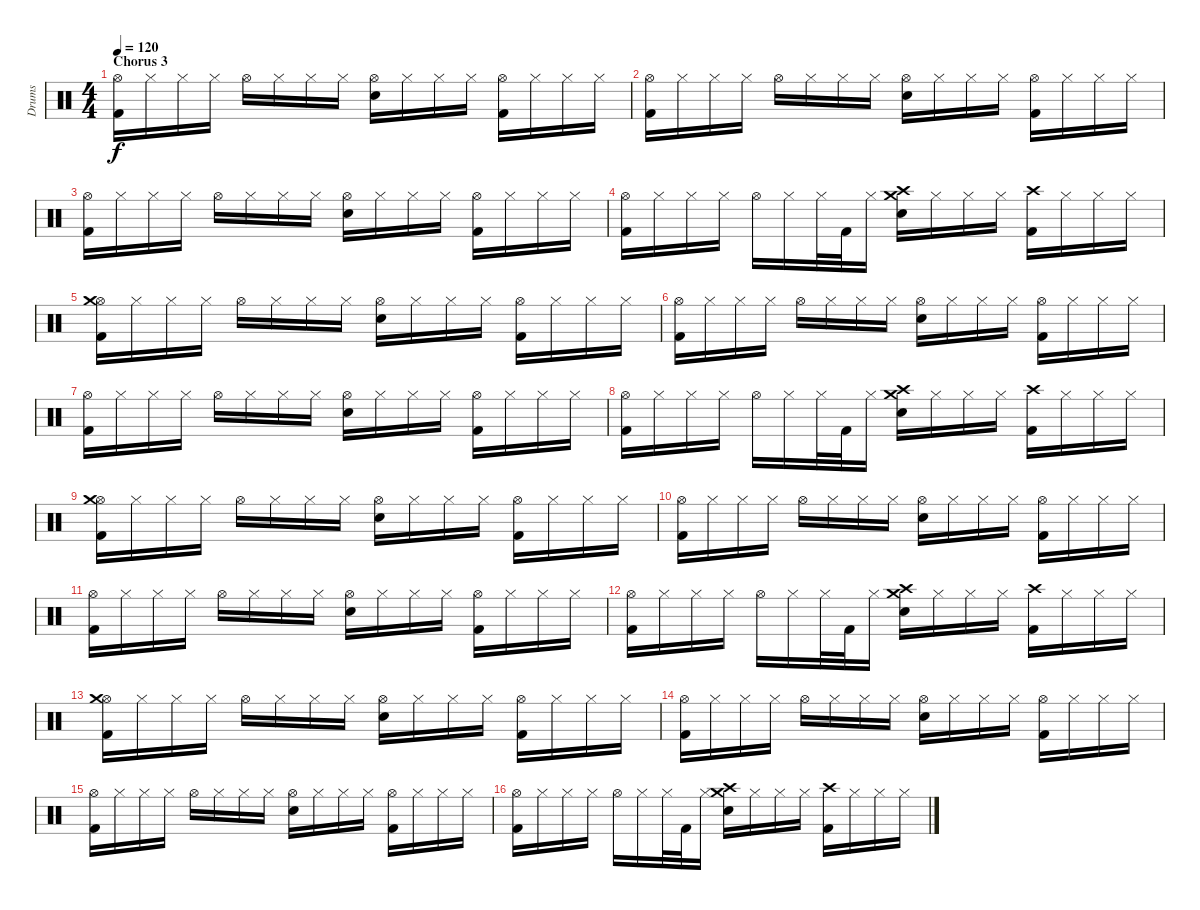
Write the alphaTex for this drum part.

\track ("Drums" "Drums") {instrument percussion}
\staff {score}
\articulation defaults
\ts (4 4)
\section ("" "Chorus 3")
\tempo 120
\clef neutral
\ks c
("Hi-Hat (open)" "Kick (hit) 2").16{dy f} "Hi-Hat (closed)".16 "Hi-Hat (closed)".16 "Hi-Hat (closed)".16 "Hi-Hat (open)".16 "Hi-Hat (closed)".16 "Hi-Hat (closed)".16 "Hi-Hat (closed)".16 ("Hi-Hat (open)" "Snare (hit) 2").16 "Hi-Hat (closed)".16 "Hi-Hat (closed)".16 "Hi-Hat (closed)".16 ("Hi-Hat (open)" "Kick (hit) 2").16 "Hi-Hat (closed)".16 "Hi-Hat (closed)".16 "Hi-Hat (closed)".16 |
("Hi-Hat (open)" "Kick (hit) 2").16 "Hi-Hat (closed)".16 "Hi-Hat (closed)".16 "Hi-Hat (closed)".16 "Hi-Hat (open)".16 "Hi-Hat (closed)".16 "Hi-Hat (closed)".16 "Hi-Hat (closed)".16 ("Hi-Hat (open)" "Snare (hit) 2").16 "Hi-Hat (closed)".16 "Hi-Hat (closed)".16 "Hi-Hat (closed)".16 ("Hi-Hat (open)" "Kick (hit) 2").16 "Hi-Hat (closed)".16 "Hi-Hat (closed)".16 "Hi-Hat (closed)".16 |
("Hi-Hat (open)" "Kick (hit) 2").16 "Hi-Hat (closed)".16 "Hi-Hat (closed)".16 "Hi-Hat (closed)".16 "Hi-Hat (open)".16 "Hi-Hat (closed)".16 "Hi-Hat (closed)".16 "Hi-Hat (closed)".16 ("Hi-Hat (open)" "Snare (hit) 2").16 "Hi-Hat (closed)".16 "Hi-Hat (closed)".16 "Hi-Hat (closed)".16 ("Hi-Hat (open)" "Kick (hit) 2").16 "Hi-Hat (closed)".16 "Hi-Hat (closed)".16 "Hi-Hat (closed)".16 |
("Hi-Hat (open)" "Kick (hit) 2").16 "Hi-Hat (closed)".16 "Hi-Hat (closed)".16 "Hi-Hat (closed)".16 "Hi-Hat (open)".16 "Hi-Hat (closed)".16 "Hi-Hat (closed)".32 "Kick (hit) 2".32 "Hi-Hat (closed)".16 ("Crash high (hit)" "Crash medium (hit)" "Snare (hit) 2").16 "Hi-Hat (closed)".16 "Hi-Hat (closed)".16 "Hi-Hat (closed)".16 ("Crash high (hit)" "Kick (hit) 2").16 "Hi-Hat (closed)".16 "Hi-Hat (closed)".16 "Hi-Hat (closed)".16 |
("Hi-Hat (open)" "Crash medium (hit)" "Kick (hit) 2").16 "Hi-Hat (closed)".16 "Hi-Hat (closed)".16 "Hi-Hat (closed)".16 "Hi-Hat (open)".16 "Hi-Hat (closed)".16 "Hi-Hat (closed)".16 "Hi-Hat (closed)".16 ("Hi-Hat (open)" "Snare (hit) 2").16 "Hi-Hat (closed)".16 "Hi-Hat (closed)".16 "Hi-Hat (closed)".16 ("Hi-Hat (open)" "Kick (hit) 2").16 "Hi-Hat (closed)".16 "Hi-Hat (closed)".16 "Hi-Hat (closed)".16 |
("Hi-Hat (open)" "Kick (hit) 2").16 "Hi-Hat (closed)".16 "Hi-Hat (closed)".16 "Hi-Hat (closed)".16 "Hi-Hat (open)".16 "Hi-Hat (closed)".16 "Hi-Hat (closed)".16 "Hi-Hat (closed)".16 ("Hi-Hat (open)" "Snare (hit) 2").16 "Hi-Hat (closed)".16 "Hi-Hat (closed)".16 "Hi-Hat (closed)".16 ("Hi-Hat (open)" "Kick (hit) 2").16 "Hi-Hat (closed)".16 "Hi-Hat (closed)".16 "Hi-Hat (closed)".16 |
("Hi-Hat (open)" "Kick (hit) 2").16 "Hi-Hat (closed)".16 "Hi-Hat (closed)".16 "Hi-Hat (closed)".16 "Hi-Hat (open)".16 "Hi-Hat (closed)".16 "Hi-Hat (closed)".16 "Hi-Hat (closed)".16 ("Hi-Hat (open)" "Snare (hit) 2").16 "Hi-Hat (closed)".16 "Hi-Hat (closed)".16 "Hi-Hat (closed)".16 ("Hi-Hat (open)" "Kick (hit) 2").16 "Hi-Hat (closed)".16 "Hi-Hat (closed)".16 "Hi-Hat (closed)".16 |
("Hi-Hat (open)" "Kick (hit) 2").16 "Hi-Hat (closed)".16 "Hi-Hat (closed)".16 "Hi-Hat (closed)".16 "Hi-Hat (open)".16 "Hi-Hat (closed)".16 "Hi-Hat (closed)".32 "Kick (hit) 2".32 "Hi-Hat (closed)".16 ("Crash high (hit)" "Crash medium (hit)" "Snare (hit) 2").16 "Hi-Hat (closed)".16 "Hi-Hat (closed)".16 "Hi-Hat (closed)".16 ("Crash high (hit)" "Kick (hit) 2").16 "Hi-Hat (closed)".16 "Hi-Hat (closed)".16 "Hi-Hat (closed)".16 |
("Hi-Hat (open)" "Crash medium (hit)" "Kick (hit) 2").16 "Hi-Hat (closed)".16 "Hi-Hat (closed)".16 "Hi-Hat (closed)".16 "Hi-Hat (open)".16 "Hi-Hat (closed)".16 "Hi-Hat (closed)".16 "Hi-Hat (closed)".16 ("Hi-Hat (open)" "Snare (hit) 2").16 "Hi-Hat (closed)".16 "Hi-Hat (closed)".16 "Hi-Hat (closed)".16 ("Hi-Hat (open)" "Kick (hit) 2").16 "Hi-Hat (closed)".16 "Hi-Hat (closed)".16 "Hi-Hat (closed)".16 |
("Hi-Hat (open)" "Kick (hit) 2").16 "Hi-Hat (closed)".16 "Hi-Hat (closed)".16 "Hi-Hat (closed)".16 "Hi-Hat (open)".16 "Hi-Hat (closed)".16 "Hi-Hat (closed)".16 "Hi-Hat (closed)".16 ("Hi-Hat (open)" "Snare (hit) 2").16 "Hi-Hat (closed)".16 "Hi-Hat (closed)".16 "Hi-Hat (closed)".16 ("Hi-Hat (open)" "Kick (hit) 2").16 "Hi-Hat (closed)".16 "Hi-Hat (closed)".16 "Hi-Hat (closed)".16 |
("Hi-Hat (open)" "Kick (hit) 2").16 "Hi-Hat (closed)".16 "Hi-Hat (closed)".16 "Hi-Hat (closed)".16 "Hi-Hat (open)".16 "Hi-Hat (closed)".16 "Hi-Hat (closed)".16 "Hi-Hat (closed)".16 ("Hi-Hat (open)" "Snare (hit) 2").16 "Hi-Hat (closed)".16 "Hi-Hat (closed)".16 "Hi-Hat (closed)".16 ("Hi-Hat (open)" "Kick (hit) 2").16 "Hi-Hat (closed)".16 "Hi-Hat (closed)".16 "Hi-Hat (closed)".16 |
("Hi-Hat (open)" "Kick (hit) 2").16 "Hi-Hat (closed)".16 "Hi-Hat (closed)".16 "Hi-Hat (closed)".16 "Hi-Hat (open)".16 "Hi-Hat (closed)".16 "Hi-Hat (closed)".32 "Kick (hit) 2".32 "Hi-Hat (closed)".16 ("Crash medium (hit)" "Crash high (hit)" "Snare (hit) 2").16 "Hi-Hat (closed)".16 "Hi-Hat (closed)".16 "Hi-Hat (closed)".16 ("Crash high (hit)" "Kick (hit) 2").16 "Hi-Hat (closed)".16 "Hi-Hat (closed)".16 "Hi-Hat (closed)".16 |
("Hi-Hat (open)" "Crash medium (hit)" "Kick (hit) 2").16 "Hi-Hat (closed)".16 "Hi-Hat (closed)".16 "Hi-Hat (closed)".16 "Hi-Hat (open)".16 "Hi-Hat (closed)".16 "Hi-Hat (closed)".16 "Hi-Hat (closed)".16 ("Hi-Hat (open)" "Snare (hit) 2").16 "Hi-Hat (closed)".16 "Hi-Hat (closed)".16 "Hi-Hat (closed)".16 ("Hi-Hat (open)" "Kick (hit) 2").16 "Hi-Hat (closed)".16 "Hi-Hat (closed)".16 "Hi-Hat (closed)".16 |
("Hi-Hat (open)" "Kick (hit) 2").16 "Hi-Hat (closed)".16 "Hi-Hat (closed)".16 "Hi-Hat (closed)".16 "Hi-Hat (open)".16 "Hi-Hat (closed)".16 "Hi-Hat (closed)".16 "Hi-Hat (closed)".16 ("Hi-Hat (open)" "Snare (hit) 2").16 "Hi-Hat (closed)".16 "Hi-Hat (closed)".16 "Hi-Hat (closed)".16 ("Hi-Hat (open)" "Kick (hit) 2").16 "Hi-Hat (closed)".16 "Hi-Hat (closed)".16 "Hi-Hat (closed)".16 |
("Hi-Hat (open)" "Kick (hit) 2").16 "Hi-Hat (closed)".16 "Hi-Hat (closed)".16 "Hi-Hat (closed)".16 "Hi-Hat (open)".16 "Hi-Hat (closed)".16 "Hi-Hat (closed)".16 "Hi-Hat (closed)".16 ("Hi-Hat (open)" "Snare (hit) 2").16 "Hi-Hat (closed)".16 "Hi-Hat (closed)".16 "Hi-Hat (closed)".16 ("Hi-Hat (open)" "Kick (hit) 2").16 "Hi-Hat (closed)".16 "Hi-Hat (closed)".16 "Hi-Hat (closed)".16 |
("Hi-Hat (open)" "Kick (hit) 2").16 "Hi-Hat (closed)".16 "Hi-Hat (closed)".16 "Hi-Hat (closed)".16 "Hi-Hat (open)".16 "Hi-Hat (closed)".16 "Hi-Hat (closed)".32 "Kick (hit) 2".32 "Hi-Hat (closed)".16 ("Crash high (hit)" "Crash medium (hit)" "Snare (hit) 2").16 "Hi-Hat (closed)".16 "Hi-Hat (closed)".16 "Hi-Hat (closed)".16 ("Crash high (hit)" "Kick (hit) 2").16 "Hi-Hat (closed)".16 "Hi-Hat (closed)".16 "Hi-Hat (closed)".16
